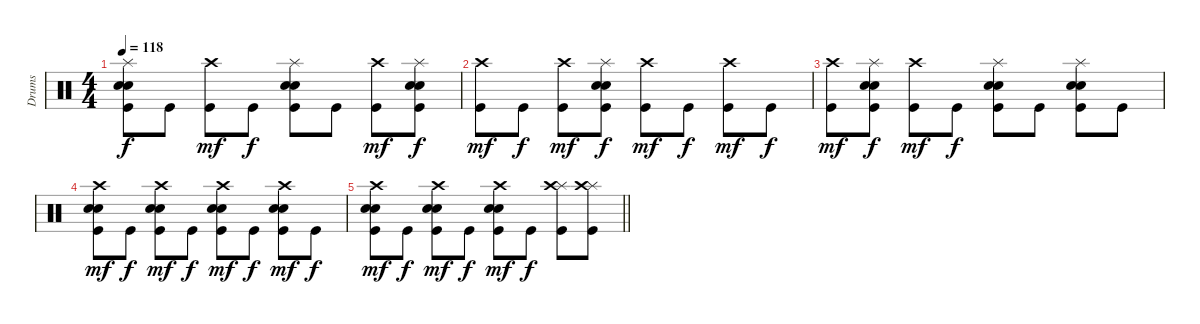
\track ("Drums" "Drums") {instrument percussion}
\staff {score}
\articulation defaults
\ts (4 4)
\tempo 118
\clef neutral
\ks c
("Splash (hit)" "Snare (hit) 2" "Electric Snare (hit)" "Kick (hit)").8{dy f} "Kick (hit)".8 ("Crash high (hit)" "Kick (hit)").8{dy mf} "Kick (hit)".8{dy f} ("Splash (hit)" "Snare (hit) 2" "Electric Snare (hit)" "Kick (hit)").8 "Kick (hit)".8 ("Crash high (hit)" "Kick (hit)").8{dy mf} ("Splash (hit)" "Snare (hit) 2" "Electric Snare (hit)" "Kick (hit)").8{dy f} |
("Crash high (hit)" "Kick (hit)").8{dy mf} "Kick (hit)".8{dy f} ("Crash high (hit)" "Kick (hit)").8{dy mf} ("Splash (hit)" "Snare (hit) 2" "Electric Snare (hit)" "Kick (hit)").8{dy f} ("Crash high (hit)" "Kick (hit)").8{dy mf} "Kick (hit)".8{dy f} ("Crash high (hit)" "Kick (hit)").8{dy mf} "Kick (hit)".8{dy f} |
("Crash high (hit)" "Kick (hit)").8{dy mf} ("Splash (hit)" "Snare (hit) 2" "Electric Snare (hit)" "Kick (hit)").8{dy f} ("Crash high (hit)" "Kick (hit)").8{dy mf} "Kick (hit)".8{dy f} ("Splash (hit)" "Snare (hit) 2" "Electric Snare (hit)" "Kick (hit)").8 "Kick (hit)".8 ("Splash (hit)" "Snare (hit) 2" "Electric Snare (hit)" "Kick (hit)").8 "Kick (hit)".8 |
("Crash high (hit)" "Snare (hit) 2" "Electric Snare (hit)" "Kick (hit)").8{dy mf} "Kick (hit)".8{dy f} ("Crash high (hit)" "Snare (hit) 2" "Electric Snare (hit)" "Kick (hit)").8{dy mf} "Kick (hit)".8{dy f} ("Crash high (hit)" "Snare (hit) 2" "Electric Snare (hit)" "Kick (hit)").8{dy mf} "Kick (hit)".8{dy f} ("Crash high (hit)" "Snare (hit) 2" "Electric Snare (hit)" "Kick (hit)").8{dy mf} "Kick (hit)".8{dy f} |
\barLineRight lightlight
("Crash high (hit)" "Snare (hit) 2" "Electric Snare (hit)" "Kick (hit)").8{dy mf} "Kick (hit)".8{dy f} ("Crash high (hit)" "Snare (hit) 2" "Electric Snare (hit)" "Kick (hit)").8{dy mf} "Kick (hit)".8{dy f} ("Crash high (hit)" "Snare (hit) 2" "Electric Snare (hit)" "Kick (hit)").8{dy mf} "Kick (hit)".8{dy f} ("Splash (hit)" "Crash high (hit)" "Kick (hit)").8 ("Splash (hit)" "Crash high (hit)" "Kick (hit)").8
